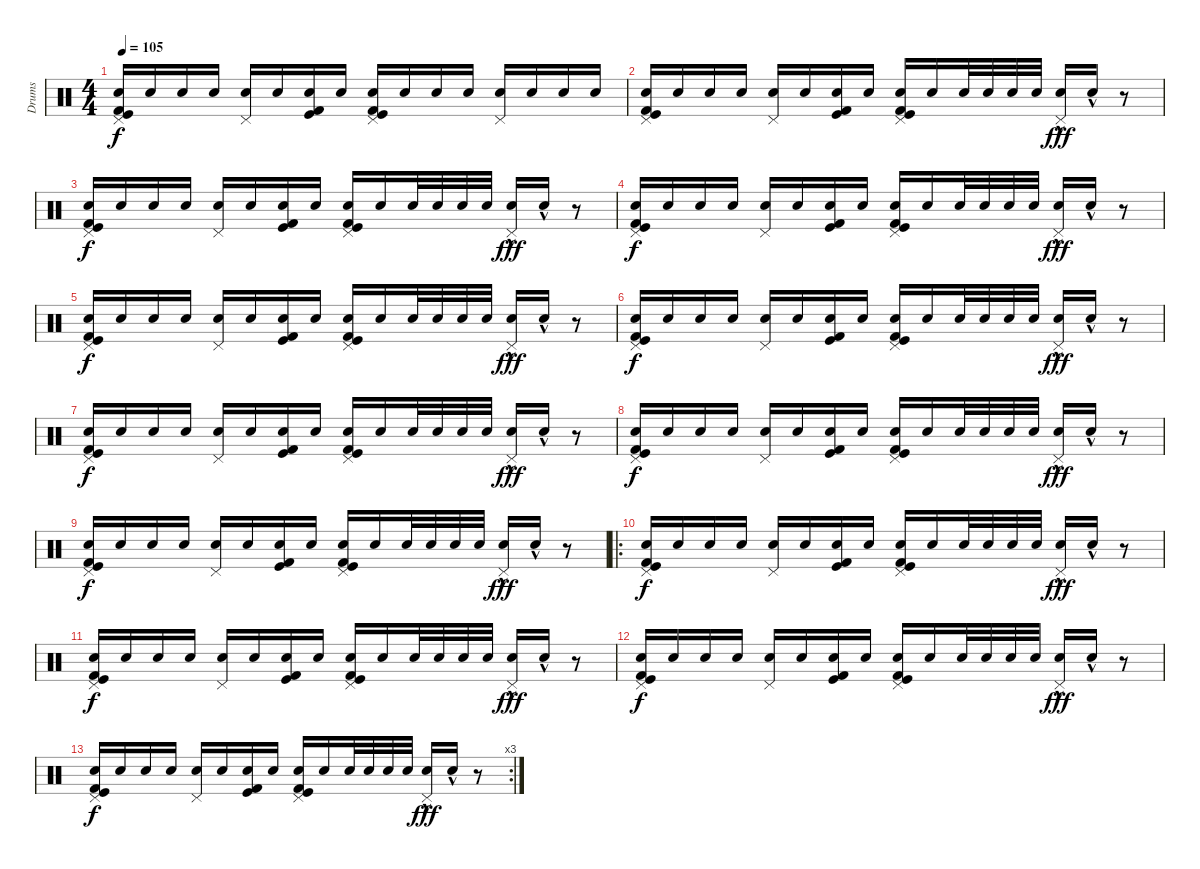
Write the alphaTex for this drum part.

\track ("Drums" "Drums") {instrument percussion}
\staff {score}
\articulation defaults
\ts (4 4)
\tempo 105
\clef neutral
\ks c
("Electric Snare (hit)" "Pedal Hi-Hat (hit)" "Kick (hit)" "Kick (hit) 2").16{dy f} "Electric Snare (hit)".16 "Electric Snare (hit)".16 "Electric Snare (hit)".16 ("Electric Snare (hit)" "Pedal Hi-Hat (hit)").16 "Electric Snare (hit)".16 ("Electric Snare (hit)" "Kick (hit) 2" "Kick (hit)").16 "Electric Snare (hit)".16 ("Electric Snare (hit)" "Kick (hit) 2" "Kick (hit)" "Pedal Hi-Hat (hit)").16 "Electric Snare (hit)".16 "Electric Snare (hit)".16 "Electric Snare (hit)".16 ("Electric Snare (hit)" "Pedal Hi-Hat (hit)").16 "Electric Snare (hit)".16 "Electric Snare (hit)".16 "Electric Snare (hit)".16 |
("Electric Snare (hit)" "Pedal Hi-Hat (hit)" "Kick (hit)" "Kick (hit) 2").16 "Electric Snare (hit)".16 "Electric Snare (hit)".16 "Electric Snare (hit)".16 ("Electric Snare (hit)" "Pedal Hi-Hat (hit)").16 "Electric Snare (hit)".16 ("Electric Snare (hit)" "Kick (hit) 2" "Kick (hit)").16 "Electric Snare (hit)".16 ("Electric Snare (hit)" "Kick (hit) 2" "Kick (hit)" "Pedal Hi-Hat (hit)").16 "Electric Snare (hit)".16 "Electric Snare (hit)".32 "Electric Snare (hit)".32 "Electric Snare (hit)".32 "Electric Snare (hit)".32 ("Electric Snare (hit)"{hac} "Pedal Hi-Hat (hit)").16{dy fff} "Electric Snare (hit)"{hac}.16 r.8 |
("Electric Snare (hit)" "Pedal Hi-Hat (hit)" "Kick (hit)" "Kick (hit) 2").16{dy f} "Electric Snare (hit)".16 "Electric Snare (hit)".16 "Electric Snare (hit)".16 ("Electric Snare (hit)" "Pedal Hi-Hat (hit)").16 "Electric Snare (hit)".16 ("Electric Snare (hit)" "Kick (hit) 2" "Kick (hit)").16 "Electric Snare (hit)".16 ("Electric Snare (hit)" "Kick (hit) 2" "Kick (hit)" "Pedal Hi-Hat (hit)").16 "Electric Snare (hit)".16 "Electric Snare (hit)".32 "Electric Snare (hit)".32 "Electric Snare (hit)".32 "Electric Snare (hit)".32 ("Electric Snare (hit)"{hac} "Pedal Hi-Hat (hit)").16{dy fff} "Electric Snare (hit)"{hac}.16 r.8 |
("Electric Snare (hit)" "Pedal Hi-Hat (hit)" "Kick (hit)" "Kick (hit) 2").16{dy f} "Electric Snare (hit)".16 "Electric Snare (hit)".16 "Electric Snare (hit)".16 ("Electric Snare (hit)" "Pedal Hi-Hat (hit)").16 "Electric Snare (hit)".16 ("Electric Snare (hit)" "Kick (hit) 2" "Kick (hit)").16 "Electric Snare (hit)".16 ("Electric Snare (hit)" "Kick (hit) 2" "Kick (hit)" "Pedal Hi-Hat (hit)").16 "Electric Snare (hit)".16 "Electric Snare (hit)".32 "Electric Snare (hit)".32 "Electric Snare (hit)".32 "Electric Snare (hit)".32 ("Electric Snare (hit)"{hac} "Pedal Hi-Hat (hit)").16{dy fff} "Electric Snare (hit)"{hac}.16 r.8 |
("Electric Snare (hit)" "Pedal Hi-Hat (hit)" "Kick (hit)" "Kick (hit) 2").16{dy f} "Electric Snare (hit)".16 "Electric Snare (hit)".16 "Electric Snare (hit)".16 ("Electric Snare (hit)" "Pedal Hi-Hat (hit)").16 "Electric Snare (hit)".16 ("Electric Snare (hit)" "Kick (hit) 2" "Kick (hit)").16 "Electric Snare (hit)".16 ("Electric Snare (hit)" "Kick (hit) 2" "Kick (hit)" "Pedal Hi-Hat (hit)").16 "Electric Snare (hit)".16 "Electric Snare (hit)".32 "Electric Snare (hit)".32 "Electric Snare (hit)".32 "Electric Snare (hit)".32 ("Electric Snare (hit)"{hac} "Pedal Hi-Hat (hit)").16{dy fff} "Electric Snare (hit)"{hac}.16 r.8 |
("Electric Snare (hit)" "Pedal Hi-Hat (hit)" "Kick (hit)" "Kick (hit) 2").16{dy f} "Electric Snare (hit)".16 "Electric Snare (hit)".16 "Electric Snare (hit)".16 ("Electric Snare (hit)" "Pedal Hi-Hat (hit)").16 "Electric Snare (hit)".16 ("Electric Snare (hit)" "Kick (hit) 2" "Kick (hit)").16 "Electric Snare (hit)".16 ("Electric Snare (hit)" "Kick (hit) 2" "Kick (hit)" "Pedal Hi-Hat (hit)").16 "Electric Snare (hit)".16 "Electric Snare (hit)".32 "Electric Snare (hit)".32 "Electric Snare (hit)".32 "Electric Snare (hit)".32 ("Electric Snare (hit)"{hac} "Pedal Hi-Hat (hit)").16{dy fff} "Electric Snare (hit)"{hac}.16 r.8 |
("Electric Snare (hit)" "Pedal Hi-Hat (hit)" "Kick (hit)" "Kick (hit) 2").16{dy f} "Electric Snare (hit)".16 "Electric Snare (hit)".16 "Electric Snare (hit)".16 ("Electric Snare (hit)" "Pedal Hi-Hat (hit)").16 "Electric Snare (hit)".16 ("Electric Snare (hit)" "Kick (hit) 2" "Kick (hit)").16 "Electric Snare (hit)".16 ("Electric Snare (hit)" "Kick (hit) 2" "Kick (hit)" "Pedal Hi-Hat (hit)").16 "Electric Snare (hit)".16 "Electric Snare (hit)".32 "Electric Snare (hit)".32 "Electric Snare (hit)".32 "Electric Snare (hit)".32 ("Electric Snare (hit)"{hac} "Pedal Hi-Hat (hit)").16{dy fff} "Electric Snare (hit)"{hac}.16 r.8 |
("Electric Snare (hit)" "Pedal Hi-Hat (hit)" "Kick (hit)" "Kick (hit) 2").16{dy f} "Electric Snare (hit)".16 "Electric Snare (hit)".16 "Electric Snare (hit)".16 ("Electric Snare (hit)" "Pedal Hi-Hat (hit)").16 "Electric Snare (hit)".16 ("Electric Snare (hit)" "Kick (hit) 2" "Kick (hit)").16 "Electric Snare (hit)".16 ("Electric Snare (hit)" "Kick (hit) 2" "Kick (hit)" "Pedal Hi-Hat (hit)").16 "Electric Snare (hit)".16 "Electric Snare (hit)".32 "Electric Snare (hit)".32 "Electric Snare (hit)".32 "Electric Snare (hit)".32 ("Electric Snare (hit)"{hac} "Pedal Hi-Hat (hit)").16{dy fff} "Electric Snare (hit)"{hac}.16 r.8 |
("Electric Snare (hit)" "Pedal Hi-Hat (hit)" "Kick (hit)" "Kick (hit) 2").16{dy f} "Electric Snare (hit)".16 "Electric Snare (hit)".16 "Electric Snare (hit)".16 ("Electric Snare (hit)" "Pedal Hi-Hat (hit)").16 "Electric Snare (hit)".16 ("Electric Snare (hit)" "Kick (hit) 2" "Kick (hit)").16 "Electric Snare (hit)".16 ("Electric Snare (hit)" "Kick (hit) 2" "Kick (hit)" "Pedal Hi-Hat (hit)").16 "Electric Snare (hit)".16 "Electric Snare (hit)".32 "Electric Snare (hit)".32 "Electric Snare (hit)".32 "Electric Snare (hit)".32 ("Electric Snare (hit)"{hac} "Pedal Hi-Hat (hit)").16{dy fff} "Electric Snare (hit)"{hac}.16 r.8 |
\ro
("Electric Snare (hit)" "Pedal Hi-Hat (hit)" "Kick (hit)" "Kick (hit) 2").16{dy f} "Electric Snare (hit)".16 "Electric Snare (hit)".16 "Electric Snare (hit)".16 ("Electric Snare (hit)" "Pedal Hi-Hat (hit)").16 "Electric Snare (hit)".16 ("Electric Snare (hit)" "Kick (hit) 2" "Kick (hit)").16 "Electric Snare (hit)".16 ("Electric Snare (hit)" "Kick (hit) 2" "Kick (hit)" "Pedal Hi-Hat (hit)").16 "Electric Snare (hit)".16 "Electric Snare (hit)".32 "Electric Snare (hit)".32 "Electric Snare (hit)".32 "Electric Snare (hit)".32 ("Electric Snare (hit)"{hac} "Pedal Hi-Hat (hit)").16{dy fff} "Electric Snare (hit)"{hac}.16 r.8 |
("Electric Snare (hit)" "Pedal Hi-Hat (hit)" "Kick (hit)" "Kick (hit) 2").16{dy f} "Electric Snare (hit)".16 "Electric Snare (hit)".16 "Electric Snare (hit)".16 ("Electric Snare (hit)" "Pedal Hi-Hat (hit)").16 "Electric Snare (hit)".16 ("Electric Snare (hit)" "Kick (hit) 2" "Kick (hit)").16 "Electric Snare (hit)".16 ("Electric Snare (hit)" "Kick (hit) 2" "Kick (hit)" "Pedal Hi-Hat (hit)").16 "Electric Snare (hit)".16 "Electric Snare (hit)".32 "Electric Snare (hit)".32 "Electric Snare (hit)".32 "Electric Snare (hit)".32 ("Electric Snare (hit)"{hac} "Pedal Hi-Hat (hit)").16{dy fff} "Electric Snare (hit)"{hac}.16 r.8 |
("Electric Snare (hit)" "Pedal Hi-Hat (hit)" "Kick (hit)" "Kick (hit) 2").16{dy f} "Electric Snare (hit)".16 "Electric Snare (hit)".16 "Electric Snare (hit)".16 ("Electric Snare (hit)" "Pedal Hi-Hat (hit)").16 "Electric Snare (hit)".16 ("Electric Snare (hit)" "Kick (hit) 2" "Kick (hit)").16 "Electric Snare (hit)".16 ("Electric Snare (hit)" "Kick (hit) 2" "Kick (hit)" "Pedal Hi-Hat (hit)").16 "Electric Snare (hit)".16 "Electric Snare (hit)".32 "Electric Snare (hit)".32 "Electric Snare (hit)".32 "Electric Snare (hit)".32 ("Electric Snare (hit)"{hac} "Pedal Hi-Hat (hit)").16{dy fff} "Electric Snare (hit)"{hac}.16 r.8 |
\rc 3
("Electric Snare (hit)" "Pedal Hi-Hat (hit)" "Kick (hit)" "Kick (hit) 2").16{dy f} "Electric Snare (hit)".16 "Electric Snare (hit)".16 "Electric Snare (hit)".16 ("Electric Snare (hit)" "Pedal Hi-Hat (hit)").16 "Electric Snare (hit)".16 ("Electric Snare (hit)" "Kick (hit) 2" "Kick (hit)").16 "Electric Snare (hit)".16 ("Electric Snare (hit)" "Kick (hit) 2" "Kick (hit)" "Pedal Hi-Hat (hit)").16 "Electric Snare (hit)".16 "Electric Snare (hit)".32 "Electric Snare (hit)".32 "Electric Snare (hit)".32 "Electric Snare (hit)".32 ("Electric Snare (hit)"{hac} "Pedal Hi-Hat (hit)").16{dy fff} "Electric Snare (hit)"{hac}.16 r.8
